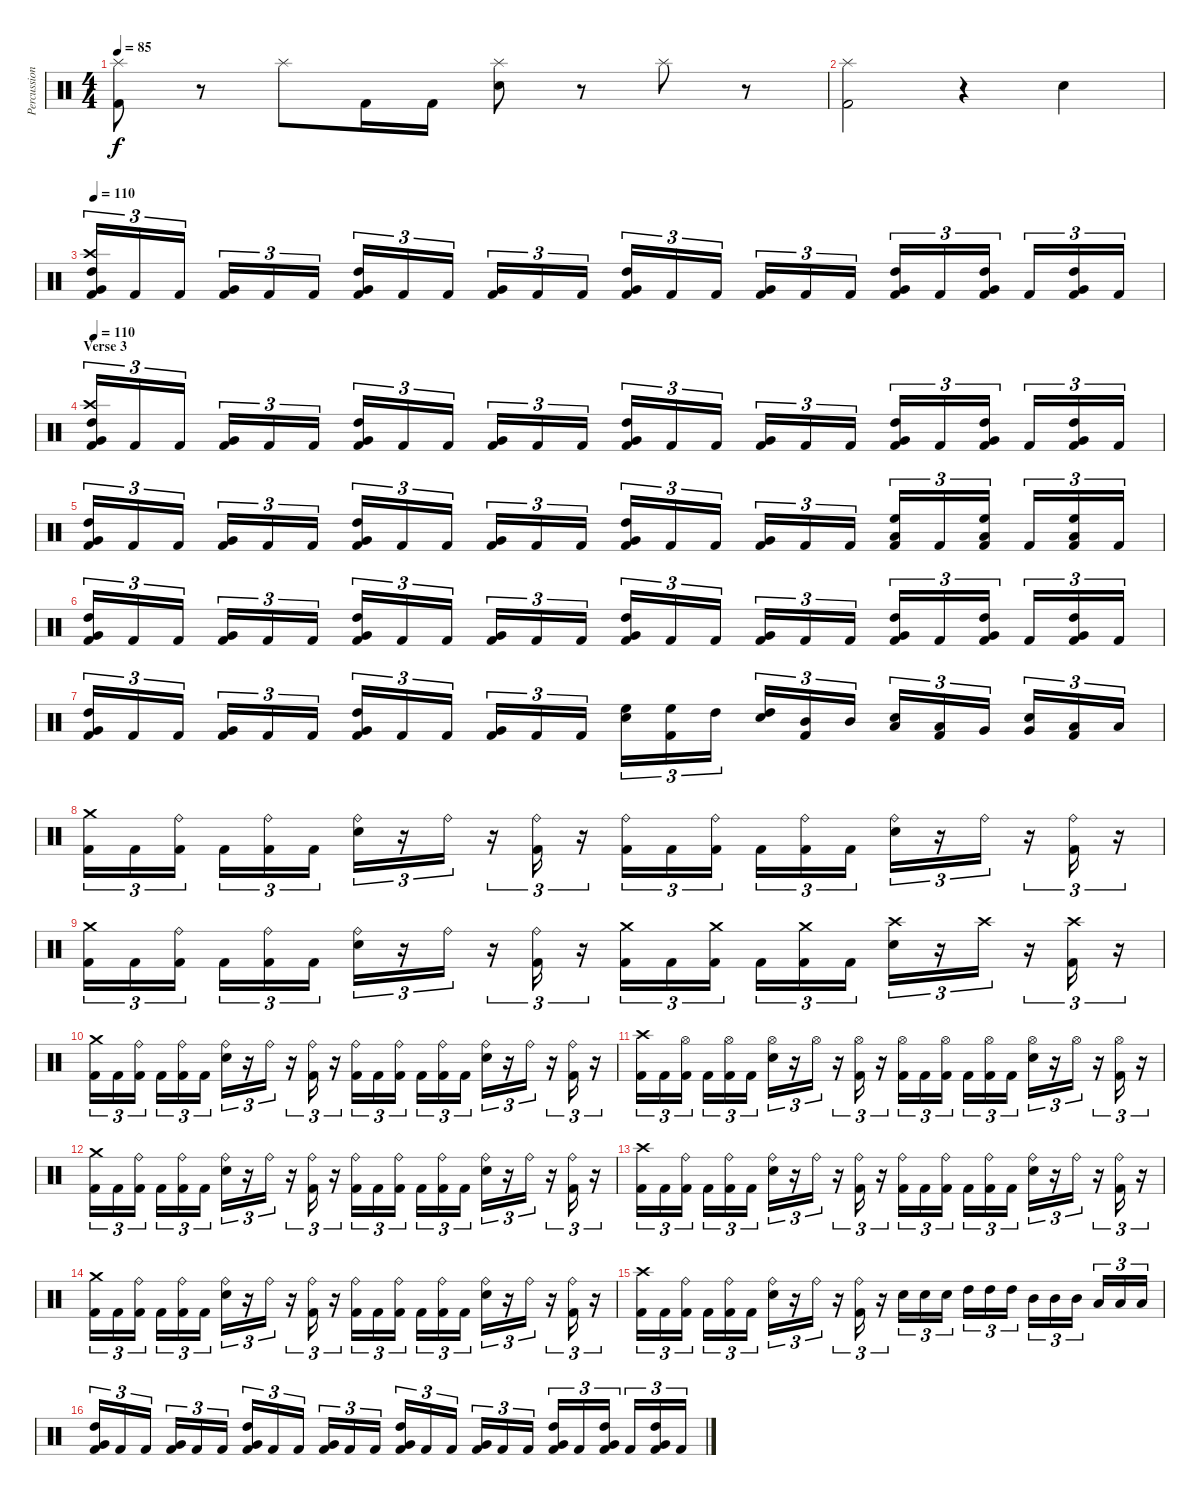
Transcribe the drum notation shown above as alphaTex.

\track ("Percussion" "Percussion") {instrument percussion}
\staff {score}
\articulation defaults
\ts (4 4)
\tempo 85
\clef neutral
\ks c
("Splash (hit)" "Kick (hit) 2").8{dy f} r.8 "Splash (hit)".8 "Kick (hit) 2".16 "Kick (hit) 2".16 ("Splash (hit)" "Electric Snare (hit)").8 r.8 "Splash (hit)".8 r.8 |
("Splash (hit)" "Kick (hit) 2").2 r.4 "Electric Snare (hit)".4 |
\tempo 110
("Crash high (hit)" "High Tom (hit)" "Very Low Tom (hit)" "Kick (hit) 2").16{tu (3 2)} "Kick (hit) 2".16{tu (3 2)} "Kick (hit) 2".16{tu (3 2)} ("Very Low Tom (hit)" "Kick (hit) 2").16{tu (3 2)} "Kick (hit) 2".16{tu (3 2)} "Kick (hit) 2".16{tu (3 2)} ("High Tom (hit)" "Very Low Tom (hit)" "Kick (hit) 2").16{tu (3 2)} "Kick (hit) 2".16{tu (3 2)} "Kick (hit) 2".16{tu (3 2)} ("Very Low Tom (hit)" "Kick (hit) 2").16{tu (3 2)} "Kick (hit) 2".16{tu (3 2)} "Kick (hit) 2".16{tu (3 2)} ("High Tom (hit)" "Very Low Tom (hit)" "Kick (hit) 2").16{tu (3 2)} "Kick (hit) 2".16{tu (3 2)} "Kick (hit) 2".16{tu (3 2)} ("Very Low Tom (hit)" "Kick (hit) 2").16{tu (3 2)} "Kick (hit) 2".16{tu (3 2)} "Kick (hit) 2".16{tu (3 2)} ("High Tom (hit)" "Very Low Tom (hit)" "Kick (hit) 2").16{tu (3 2)} "Kick (hit) 2".16{tu (3 2)} ("High Tom (hit)" "Very Low Tom (hit)" "Kick (hit) 2").16{tu (3 2)} "Kick (hit) 2".16{tu (3 2)} ("High Tom (hit)" "Very Low Tom (hit)" "Kick (hit) 2").16{tu (3 2)} "Kick (hit) 2".16{tu (3 2)} |
\section ("" "Verse 3")
\tempo 110
("Crash high (hit)" "High Tom (hit)" "Very Low Tom (hit)" "Kick (hit) 2").16{tu (3 2)} "Kick (hit) 2".16{tu (3 2)} "Kick (hit) 2".16{tu (3 2)} ("Very Low Tom (hit)" "Kick (hit) 2").16{tu (3 2)} "Kick (hit) 2".16{tu (3 2)} "Kick (hit) 2".16{tu (3 2)} ("High Tom (hit)" "Very Low Tom (hit)" "Kick (hit) 2").16{tu (3 2)} "Kick (hit) 2".16{tu (3 2)} "Kick (hit) 2".16{tu (3 2)} ("Very Low Tom (hit)" "Kick (hit) 2").16{tu (3 2)} "Kick (hit) 2".16{tu (3 2)} "Kick (hit) 2".16{tu (3 2)} ("High Tom (hit)" "Very Low Tom (hit)" "Kick (hit) 2").16{tu (3 2)} "Kick (hit) 2".16{tu (3 2)} "Kick (hit) 2".16{tu (3 2)} ("Very Low Tom (hit)" "Kick (hit) 2").16{tu (3 2)} "Kick (hit) 2".16{tu (3 2)} "Kick (hit) 2".16{tu (3 2)} ("High Tom (hit)" "Very Low Tom (hit)" "Kick (hit) 2").16{tu (3 2)} "Kick (hit) 2".16{tu (3 2)} ("High Tom (hit)" "Very Low Tom (hit)" "Kick (hit) 2").16{tu (3 2)} "Kick (hit) 2".16{tu (3 2)} ("High Tom (hit)" "Very Low Tom (hit)" "Kick (hit) 2").16{tu (3 2)} "Kick (hit) 2".16{tu (3 2)} |
("High Tom (hit)" "Very Low Tom (hit)" "Kick (hit) 2").16{tu (3 2)} "Kick (hit) 2".16{tu (3 2)} "Kick (hit) 2".16{tu (3 2)} ("Very Low Tom (hit)" "Kick (hit) 2").16{tu (3 2)} "Kick (hit) 2".16{tu (3 2)} "Kick (hit) 2".16{tu (3 2)} ("High Tom (hit)" "Very Low Tom (hit)" "Kick (hit) 2").16{tu (3 2)} "Kick (hit) 2".16{tu (3 2)} "Kick (hit) 2".16{tu (3 2)} ("Very Low Tom (hit)" "Kick (hit) 2").16{tu (3 2)} "Kick (hit) 2".16{tu (3 2)} "Kick (hit) 2".16{tu (3 2)} ("High Tom (hit)" "Very Low Tom (hit)" "Kick (hit) 2").16{tu (3 2)} "Kick (hit) 2".16{tu (3 2)} "Kick (hit) 2".16{tu (3 2)} ("Very Low Tom (hit)" "Kick (hit) 2").16{tu (3 2)} "Kick (hit) 2".16{tu (3 2)} "Kick (hit) 2".16{tu (3 2)} ("High Floor Tom (hit)" "Low Tom (hit)" "Kick (hit) 2").16{tu (3 2)} "Kick (hit) 2".16{tu (3 2)} ("High Floor Tom (hit)" "Low Tom (hit)" "Kick (hit) 2").16{tu (3 2)} "Kick (hit) 2".16{tu (3 2)} ("High Floor Tom (hit)" "Low Tom (hit)" "Kick (hit) 2").16{tu (3 2)} "Kick (hit) 2".16{tu (3 2)} |
("High Tom (hit)" "Very Low Tom (hit)" "Kick (hit) 2").16{tu (3 2)} "Kick (hit) 2".16{tu (3 2)} "Kick (hit) 2".16{tu (3 2)} ("Very Low Tom (hit)" "Kick (hit) 2").16{tu (3 2)} "Kick (hit) 2".16{tu (3 2)} "Kick (hit) 2".16{tu (3 2)} ("High Tom (hit)" "Very Low Tom (hit)" "Kick (hit) 2").16{tu (3 2)} "Kick (hit) 2".16{tu (3 2)} "Kick (hit) 2".16{tu (3 2)} ("Very Low Tom (hit)" "Kick (hit) 2").16{tu (3 2)} "Kick (hit) 2".16{tu (3 2)} "Kick (hit) 2".16{tu (3 2)} ("High Tom (hit)" "Very Low Tom (hit)" "Kick (hit) 2").16{tu (3 2)} "Kick (hit) 2".16{tu (3 2)} "Kick (hit) 2".16{tu (3 2)} ("Very Low Tom (hit)" "Kick (hit) 2").16{tu (3 2)} "Kick (hit) 2".16{tu (3 2)} "Kick (hit) 2".16{tu (3 2)} ("High Tom (hit)" "Very Low Tom (hit)" "Kick (hit) 2").16{tu (3 2)} "Kick (hit) 2".16{tu (3 2)} ("High Tom (hit)" "Very Low Tom (hit)" "Kick (hit) 2").16{tu (3 2)} "Kick (hit) 2".16{tu (3 2)} ("High Tom (hit)" "Very Low Tom (hit)" "Kick (hit) 2").16{tu (3 2)} "Kick (hit) 2".16{tu (3 2)} |
("High Tom (hit)" "Very Low Tom (hit)" "Kick (hit) 2").16{tu (3 2)} "Kick (hit) 2".16{tu (3 2)} "Kick (hit) 2".16{tu (3 2)} ("Very Low Tom (hit)" "Kick (hit) 2").16{tu (3 2)} "Kick (hit) 2".16{tu (3 2)} "Kick (hit) 2".16{tu (3 2)} ("High Tom (hit)" "Very Low Tom (hit)" "Kick (hit) 2").16{tu (3 2)} "Kick (hit) 2".16{tu (3 2)} "Kick (hit) 2".16{tu (3 2)} ("Very Low Tom (hit)" "Kick (hit) 2").16{tu (3 2)} "Kick (hit) 2".16{tu (3 2)} "Kick (hit) 2".16{tu (3 2)} ("Electric Snare (hit)" "High Floor Tom (hit)").16{tu (3 2)} ("High Floor Tom (hit)" "Kick (hit) 2").16{tu (3 2)} "High Tom (hit)".16{tu (3 2)} ("Electric Snare (hit)" "High Tom (hit)").16{tu (3 2)} ("Mid Tom (hit)" "Kick (hit) 2").16{tu (3 2)} "Mid Tom (hit)".16{tu (3 2)} ("Electric Snare (hit)" "Low Tom (hit)").16{tu (3 2)} ("Low Tom (hit)" "Kick (hit) 2").16{tu (3 2)} "Very Low Tom (hit)".16{tu (3 2)} ("Electric Snare (hit)" "Very Low Tom (hit)").16{tu (3 2)} ("Low Floor Tom (hit)" "Kick (hit) 2").16{tu (3 2)} "Low Floor Tom (hit)".16{tu (3 2)} |
("Crash medium (hit)" "Kick (hit) 2").16{tu (3 2)} "Kick (hit) 2".16{tu (3 2)} ("Ride (bell)" "Kick (hit) 2").16{tu (3 2)} "Kick (hit) 2".16{tu (3 2)} ("Ride (bell)" "Kick (hit) 2").16{tu (3 2)} "Kick (hit) 2".16{tu (3 2)} ("Ride (bell)" "Electric Snare (hit)").16{tu (3 2)} r.16{tu (3 2)} "Ride (bell)".16{tu (3 2)} r.16{tu (3 2)} ("Ride (bell)" "Kick (hit) 2").16{tu (3 2)} r.16{tu (3 2)} ("Ride (bell)" "Kick (hit) 2").16{tu (3 2)} "Kick (hit) 2".16{tu (3 2)} ("Ride (bell)" "Kick (hit) 2").16{tu (3 2)} "Kick (hit) 2".16{tu (3 2)} ("Ride (bell)" "Kick (hit) 2").16{tu (3 2)} "Kick (hit) 2".16{tu (3 2)} ("Ride (bell)" "Electric Snare (hit)").16{tu (3 2)} r.16{tu (3 2)} "Ride (bell)".16{tu (3 2)} r.16{tu (3 2)} ("Ride (bell)" "Kick (hit) 2").16{tu (3 2)} r.16{tu (3 2)} |
("Crash medium (hit)" "Kick (hit) 2").16{tu (3 2)} "Kick (hit) 2".16{tu (3 2)} ("Ride (bell)" "Kick (hit) 2").16{tu (3 2)} "Kick (hit) 2".16{tu (3 2)} ("Ride (bell)" "Kick (hit) 2").16{tu (3 2)} "Kick (hit) 2".16{tu (3 2)} ("Ride (bell)" "Electric Snare (hit)").16{tu (3 2)} r.16{tu (3 2)} "Ride (bell)".16{tu (3 2)} r.16{tu (3 2)} ("Ride (bell)" "Kick (hit) 2").16{tu (3 2)} r.16{tu (3 2)} ("Crash medium (hit)" "Kick (hit) 2").16{tu (3 2)} "Kick (hit) 2".16{tu (3 2)} ("Crash medium (hit)" "Kick (hit) 2").16{tu (3 2)} "Kick (hit) 2".16{tu (3 2)} ("Crash medium (hit)" "Kick (hit) 2").16{tu (3 2)} "Kick (hit) 2".16{tu (3 2)} ("Crash high (hit)" "Electric Snare (hit)").16{tu (3 2)} r.16{tu (3 2)} "Crash high (hit)".16{tu (3 2)} r.16{tu (3 2)} ("Crash high (hit)" "Kick (hit) 2").16{tu (3 2)} r.16{tu (3 2)} |
("Crash medium (hit)" "Kick (hit) 2").16{tu (3 2)} "Kick (hit) 2".16{tu (3 2)} ("Ride (bell)" "Kick (hit) 2").16{tu (3 2)} "Kick (hit) 2".16{tu (3 2)} ("Ride (bell)" "Kick (hit) 2").16{tu (3 2)} "Kick (hit) 2".16{tu (3 2)} ("Ride (bell)" "Electric Snare (hit)").16{tu (3 2)} r.16{tu (3 2)} "Ride (bell)".16{tu (3 2)} r.16{tu (3 2)} ("Ride (bell)" "Kick (hit) 2").16{tu (3 2)} r.16{tu (3 2)} ("Ride (bell)" "Kick (hit) 2").16{tu (3 2)} "Kick (hit) 2".16{tu (3 2)} ("Ride (bell)" "Kick (hit) 2").16{tu (3 2)} "Kick (hit) 2".16{tu (3 2)} ("Ride (bell)" "Kick (hit) 2").16{tu (3 2)} "Kick (hit) 2".16{tu (3 2)} ("Ride (bell)" "Electric Snare (hit)").16{tu (3 2)} r.16{tu (3 2)} "Ride (bell)".16{tu (3 2)} r.16{tu (3 2)} ("Ride (bell)" "Kick (hit) 2").16{tu (3 2)} r.16{tu (3 2)} |
("Crash high (hit)" "Kick (hit) 2").16{tu (3 2)} "Kick (hit) 2".16{tu (3 2)} ("Hi-Hat (open)" "Kick (hit) 2").16{tu (3 2)} "Kick (hit) 2".16{tu (3 2)} ("Hi-Hat (open)" "Kick (hit) 2").16{tu (3 2)} "Kick (hit) 2".16{tu (3 2)} ("Hi-Hat (open)" "Electric Snare (hit)").16{tu (3 2)} r.16{tu (3 2)} "Hi-Hat (open)".16{tu (3 2)} r.16{tu (3 2)} ("Hi-Hat (open)" "Kick (hit) 2").16{tu (3 2)} r.16{tu (3 2)} ("Hi-Hat (open)" "Kick (hit) 2").16{tu (3 2)} "Kick (hit) 2".16{tu (3 2)} ("Hi-Hat (open)" "Kick (hit) 2").16{tu (3 2)} "Kick (hit) 2".16{tu (3 2)} ("Hi-Hat (open)" "Kick (hit) 2").16{tu (3 2)} "Kick (hit) 2".16{tu (3 2)} ("Hi-Hat (open)" "Electric Snare (hit)").16{tu (3 2)} r.16{tu (3 2)} "Hi-Hat (open)".16{tu (3 2)} r.16{tu (3 2)} ("Hi-Hat (open)" "Kick (hit) 2").16{tu (3 2)} r.16{tu (3 2)} |
("Crash medium (hit)" "Kick (hit) 2").16{tu (3 2)} "Kick (hit) 2".16{tu (3 2)} ("Ride (bell)" "Kick (hit) 2").16{tu (3 2)} "Kick (hit) 2".16{tu (3 2)} ("Ride (bell)" "Kick (hit) 2").16{tu (3 2)} "Kick (hit) 2".16{tu (3 2)} ("Ride (bell)" "Electric Snare (hit)").16{tu (3 2)} r.16{tu (3 2)} "Ride (bell)".16{tu (3 2)} r.16{tu (3 2)} ("Ride (bell)" "Kick (hit) 2").16{tu (3 2)} r.16{tu (3 2)} ("Ride (bell)" "Kick (hit) 2").16{tu (3 2)} "Kick (hit) 2".16{tu (3 2)} ("Ride (bell)" "Kick (hit) 2").16{tu (3 2)} "Kick (hit) 2".16{tu (3 2)} ("Ride (bell)" "Kick (hit) 2").16{tu (3 2)} "Kick (hit) 2".16{tu (3 2)} ("Ride (bell)" "Electric Snare (hit)").16{tu (3 2)} r.16{tu (3 2)} "Ride (bell)".16{tu (3 2)} r.16{tu (3 2)} ("Ride (bell)" "Kick (hit) 2").16{tu (3 2)} r.16{tu (3 2)} |
("Crash high (hit)" "Kick (hit) 2").16{tu (3 2)} "Kick (hit) 2".16{tu (3 2)} ("Ride (bell)" "Kick (hit) 2").16{tu (3 2)} "Kick (hit) 2".16{tu (3 2)} ("Ride (bell)" "Kick (hit) 2").16{tu (3 2)} "Kick (hit) 2".16{tu (3 2)} ("Ride (bell)" "Electric Snare (hit)").16{tu (3 2)} r.16{tu (3 2)} "Ride (bell)".16{tu (3 2)} r.16{tu (3 2)} ("Ride (bell)" "Kick (hit) 2").16{tu (3 2)} r.16{tu (3 2)} ("Ride (bell)" "Kick (hit) 2").16{tu (3 2)} "Kick (hit) 2".16{tu (3 2)} ("Ride (bell)" "Kick (hit) 2").16{tu (3 2)} "Kick (hit) 2".16{tu (3 2)} ("Ride (bell)" "Kick (hit) 2").16{tu (3 2)} "Kick (hit) 2".16{tu (3 2)} ("Ride (bell)" "Electric Snare (hit)").16{tu (3 2)} r.16{tu (3 2)} "Ride (bell)".16{tu (3 2)} r.16{tu (3 2)} ("Ride (bell)" "Kick (hit) 2").16{tu (3 2)} r.16{tu (3 2)} |
("Crash medium (hit)" "Kick (hit) 2").16{tu (3 2)} "Kick (hit) 2".16{tu (3 2)} ("Ride (bell)" "Kick (hit) 2").16{tu (3 2)} "Kick (hit) 2".16{tu (3 2)} ("Ride (bell)" "Kick (hit) 2").16{tu (3 2)} "Kick (hit) 2".16{tu (3 2)} ("Ride (bell)" "Electric Snare (hit)").16{tu (3 2)} r.16{tu (3 2)} "Ride (bell)".16{tu (3 2)} r.16{tu (3 2)} ("Ride (bell)" "Kick (hit) 2").16{tu (3 2)} r.16{tu (3 2)} ("Ride (bell)" "Kick (hit) 2").16{tu (3 2)} "Kick (hit) 2".16{tu (3 2)} ("Ride (bell)" "Kick (hit) 2").16{tu (3 2)} "Kick (hit) 2".16{tu (3 2)} ("Ride (bell)" "Kick (hit) 2").16{tu (3 2)} "Kick (hit) 2".16{tu (3 2)} ("Ride (bell)" "Electric Snare (hit)").16{tu (3 2)} r.16{tu (3 2)} "Ride (bell)".16{tu (3 2)} r.16{tu (3 2)} ("Ride (bell)" "Kick (hit) 2").16{tu (3 2)} r.16{tu (3 2)} |
("Crash high (hit)" "Kick (hit) 2").16{tu (3 2)} "Kick (hit) 2".16{tu (3 2)} ("Ride (bell)" "Kick (hit) 2").16{tu (3 2)} "Kick (hit) 2".16{tu (3 2)} ("Ride (bell)" "Kick (hit) 2").16{tu (3 2)} "Kick (hit) 2".16{tu (3 2)} ("Ride (bell)" "Electric Snare (hit)").16{tu (3 2)} r.16{tu (3 2)} "Ride (bell)".16{tu (3 2)} r.16{tu (3 2)} ("Ride (bell)" "Kick (hit) 2").16{tu (3 2)} r.16{tu (3 2)} "Electric Snare (hit)".16{tu (3 2)} "Electric Snare (hit)".16{tu (3 2)} "Electric Snare (hit)".16{tu (3 2)} "High Tom (hit)".16{tu (3 2)} "High Tom (hit)".16{tu (3 2)} "High Tom (hit)".16{tu (3 2)} "Mid Tom (hit)".16{tu (3 2)} "Mid Tom (hit)".16{tu (3 2)} "Mid Tom (hit)".16{tu (3 2)} "Low Tom (hit)".16{tu (3 2)} "Low Tom (hit)".16{tu (3 2)} "Low Tom (hit)".16{tu (3 2)} |
("High Tom (hit)" "Very Low Tom (hit)" "Kick (hit) 2").16{tu (3 2)} "Kick (hit) 2".16{tu (3 2)} "Kick (hit) 2".16{tu (3 2)} ("Very Low Tom (hit)" "Kick (hit) 2").16{tu (3 2)} "Kick (hit) 2".16{tu (3 2)} "Kick (hit) 2".16{tu (3 2)} ("High Tom (hit)" "Very Low Tom (hit)" "Kick (hit) 2").16{tu (3 2)} "Kick (hit) 2".16{tu (3 2)} "Kick (hit) 2".16{tu (3 2)} ("Very Low Tom (hit)" "Kick (hit) 2").16{tu (3 2)} "Kick (hit) 2".16{tu (3 2)} "Kick (hit) 2".16{tu (3 2)} ("High Tom (hit)" "Very Low Tom (hit)" "Kick (hit) 2").16{tu (3 2)} "Kick (hit) 2".16{tu (3 2)} "Kick (hit) 2".16{tu (3 2)} ("Very Low Tom (hit)" "Kick (hit) 2").16{tu (3 2)} "Kick (hit) 2".16{tu (3 2)} "Kick (hit) 2".16{tu (3 2)} ("High Tom (hit)" "Very Low Tom (hit)" "Kick (hit) 2").16{tu (3 2)} "Kick (hit) 2".16{tu (3 2)} ("High Tom (hit)" "Very Low Tom (hit)" "Kick (hit) 2").16{tu (3 2)} "Kick (hit) 2".16{tu (3 2)} ("High Tom (hit)" "Very Low Tom (hit)" "Kick (hit) 2").16{tu (3 2)} "Kick (hit) 2".16{tu (3 2)}
